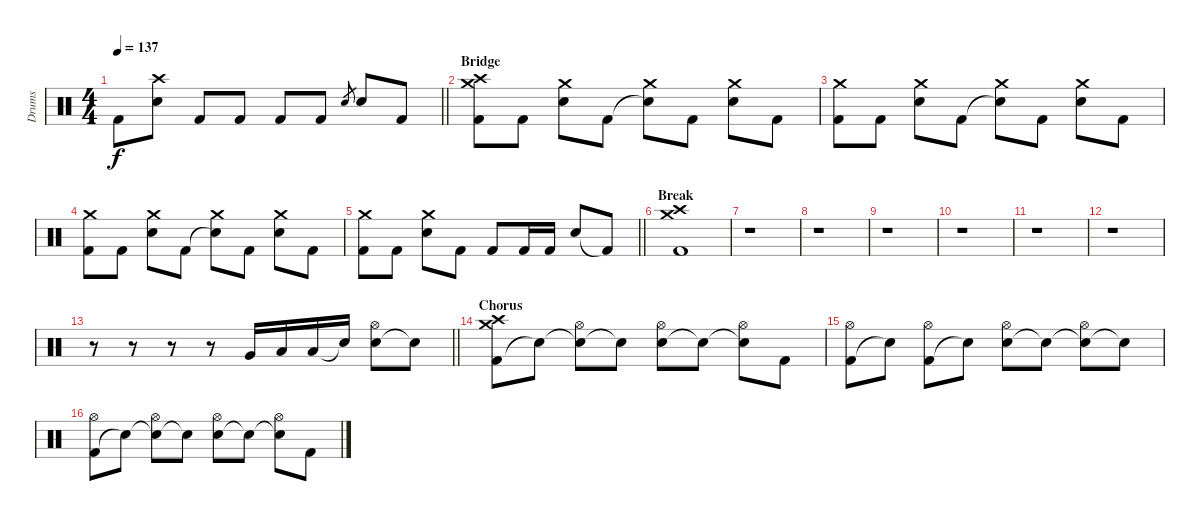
\track ("Drums" "Drums") {instrument percussion}
\staff {score}
\articulation defaults
\ts (4 4)
\tempo 137
\clef neutral
\barLineRight lightlight
\ks c "Kick (hit) 2".8{dy f}
("Electric Snare (hit)" "Crash high (hit)").8 "Kick (hit) 2".8 "Kick (hit) 2".8 "Kick (hit) 2".8 "Kick (hit) 2".8 "Electric Snare (hit)".8{gr} "Electric Snare (hit)".8 "Kick (hit) 2".8 |
\section ("" "Bridge")
("Kick (hit) 2" "Crash medium (hit)" "Crash high (hit)").8 "Kick (hit) 2".8 ("Electric Snare (hit)" "Crash medium (hit)").8 "Kick (hit) 2".8 ("Snare (hit)"{t} "Crash medium (hit)").8 "Kick (hit) 2".8 ("Electric Snare (hit)" "Crash medium (hit)").8 "Kick (hit) 2".8 |
("Kick (hit) 2" "Crash medium (hit)").8 "Kick (hit) 2".8 ("Electric Snare (hit)" "Crash medium (hit)").8 "Kick (hit) 2".8 ("Snare (hit)"{t} "Crash medium (hit)").8 "Kick (hit) 2".8 ("Electric Snare (hit)" "Crash medium (hit)").8 "Kick (hit) 2".8 |
("Kick (hit) 2" "Crash medium (hit)").8 "Kick (hit) 2".8 ("Electric Snare (hit)" "Crash medium (hit)").8 "Kick (hit) 2".8 ("Snare (hit)"{t} "Crash medium (hit)").8 "Kick (hit) 2".8 ("Electric Snare (hit)" "Crash medium (hit)").8 "Kick (hit) 2".8 |
\barLineRight lightlight
("Kick (hit) 2" "Crash medium (hit)").8 "Kick (hit) 2".8 ("Electric Snare (hit)" "Crash medium (hit)").8 "Kick (hit) 2".8 "Kick (hit) 2".8 "Kick (hit) 2".16 "Kick (hit) 2".16 "Electric Snare (hit)".8 "Kick (hit) 2"{t}.8 |
\section ("" "Break")
("Kick (hit) 2" "Crash medium (hit)" "Crash high (hit)").1 |
r.1 |
r.1 |
r.1 |
r.1 |
r.1 |
r.1 |
\barLineRight lightlight
r.8 r.8 r.8 r.8 "Very Low Tom (hit)".16 "Low Tom (hit)".16 "Low Floor Tom (hit)".16 "Snare (hit)"{t}.16 ("Electric Snare (hit)" "Hi-Hat (open)").8 "Snare (hit)"{t}.8 |
\section ("" "Chorus")
("Kick (hit) 2" "Crash medium (hit)" "Crash high (hit)").8 "Snare (hit)"{t}.8 ("Electric Snare (hit)"{t} "Hi-Hat (open)").8 "Snare (hit)"{t}.8 ("Electric Snare (hit)" "Hi-Hat (open)").8 "Snare (hit)"{t}.8 ("Snare (hit)"{t} "Hi-Hat (open)").8 "Kick (hit) 2".8 |
("Kick (hit) 2" "Hi-Hat (open)").8 "Snare (hit)"{t}.8 ("Kick (hit) 2" "Hi-Hat (open)").8 "Snare (hit)"{t}.8 ("Electric Snare (hit)" "Hi-Hat (open)").8 "Snare (hit)"{t}.8 ("Snare (hit)"{t} "Hi-Hat (open)").8 "Snare (hit)"{t}.8 |
("Kick (hit) 2" "Hi-Hat (open)").8 "Snare (hit)"{t}.8 ("Electric Snare (hit)"{t} "Hi-Hat (open)").8 "Snare (hit)"{t}.8 ("Electric Snare (hit)" "Hi-Hat (open)").8 "Snare (hit)"{t}.8 ("Snare (hit)"{t} "Hi-Hat (open)").8 "Kick (hit) 2".8
